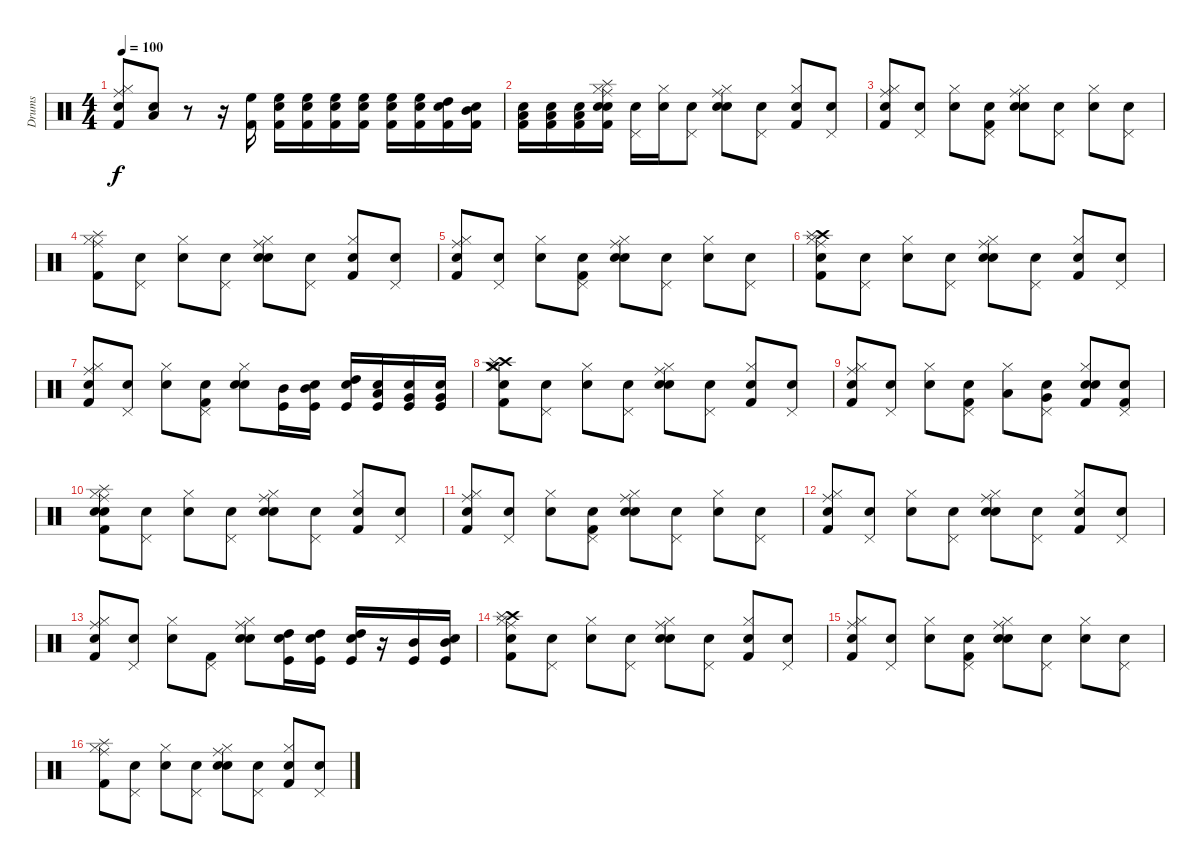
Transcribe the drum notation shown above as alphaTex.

\track ("Drums" "Drums") {instrument percussion}
\staff {score}
\articulation defaults
\ts (4 4)
\tempo 100
\clef neutral
\ks c
("Snare (hit)" "Ride (middle)" "Hi-Hat (closed)" "Kick (hit) 2").8{dy f} ("Snare (hit)" "Low Tom (hit)").8 r.8 r.16 ("Kick (hit) 2" "High Floor Tom (hit)").16 ("Snare (hit)" "Kick (hit) 2" "High Floor Tom (hit)").16 ("Snare (hit)" "Kick (hit) 2" "High Floor Tom (hit)").16 ("Snare (hit)" "Kick (hit) 2" "High Floor Tom (hit)").16 ("Snare (hit)" "Kick (hit) 2" "High Floor Tom (hit)").16 ("Snare (hit)" "Kick (hit) 2" "High Floor Tom (hit)").16 ("Snare (hit)" "Kick (hit) 2" "High Floor Tom (hit)").16 ("Snare (hit)" "Kick (hit) 2" "High Tom (hit)").16 ("Snare (hit)" "Kick (hit) 2" "Mid Tom (hit)").16 |
("Snare (hit)" "Kick (hit) 2" "Low Tom (hit)").16 ("Snare (hit)" "Kick (hit) 2" "Low Tom (hit)").16 ("Snare (hit)" "Low Floor Tom (hit)" "Kick (hit) 2").16 ("Snare (hit)" "Ride (middle)" "Hi-Hat (closed)" "Kick (hit) 2" "Snare (hit) 2" "Splash (hit)").16 ("Snare (hit)" "Pedal Hi-Hat (hit)").16 ("Snare (hit)" "Hi-Hat (closed)").16 ("Snare (hit)" "Pedal Hi-Hat (hit)").8 ("Snare (hit)" "Ride (middle)" "Hi-Hat (closed)" "Snare (hit) 2").8 ("Snare (hit)" "Pedal Hi-Hat (hit)").8 ("Snare (hit)" "Hi-Hat (closed)" "Kick (hit) 2").8 ("Snare (hit)" "Pedal Hi-Hat (hit)").8 |
("Snare (hit)" "Ride (middle)" "Hi-Hat (closed)" "Kick (hit) 2").8 ("Snare (hit)" "Pedal Hi-Hat (hit)").8 ("Snare (hit)" "Hi-Hat (closed)").8 ("Snare (hit)" "Pedal Hi-Hat (hit)" "Kick (hit) 2").8 ("Snare (hit)" "Ride (middle)" "Hi-Hat (closed)" "Snare (hit) 2").8 ("Snare (hit)" "Pedal Hi-Hat (hit)").8 ("Snare (hit)" "Hi-Hat (closed)").8 ("Snare (hit)" "Pedal Hi-Hat (hit)").8 |
("Splash (hit)" "Kick (hit) 2" "Ride (middle)" "Hi-Hat (closed)").8 ("Snare (hit)" "Pedal Hi-Hat (hit)").8 ("Snare (hit)" "Hi-Hat (closed)").8 ("Snare (hit)" "Pedal Hi-Hat (hit)").8 ("Snare (hit)" "Ride (middle)" "Hi-Hat (closed)" "Snare (hit) 2").8 ("Snare (hit)" "Pedal Hi-Hat (hit)").8 ("Snare (hit)" "Hi-Hat (closed)" "Kick (hit) 2").8 ("Snare (hit)" "Pedal Hi-Hat (hit)").8 |
("Snare (hit)" "Ride (middle)" "Hi-Hat (closed)" "Kick (hit) 2").8 ("Snare (hit)" "Pedal Hi-Hat (hit)").8 ("Snare (hit)" "Hi-Hat (closed)").8 ("Snare (hit)" "Pedal Hi-Hat (hit)" "Kick (hit) 2").8 ("Snare (hit)" "Ride (middle)" "Hi-Hat (closed)" "Snare (hit) 2").8 ("Snare (hit)" "Pedal Hi-Hat (hit)").8 ("Snare (hit)" "Hi-Hat (closed)").8 ("Snare (hit)" "Pedal Hi-Hat (hit)").8 |
("Snare (hit)" "Hi-Hat (closed)" "Ride (middle)" "Kick (hit) 2" "Crash high (hit)" "Splash (hit)").8 ("Snare (hit)" "Pedal Hi-Hat (hit)").8 ("Snare (hit)" "Hi-Hat (closed)").8 ("Snare (hit)" "Pedal Hi-Hat (hit)").8 ("Snare (hit)" "Ride (middle)" "Hi-Hat (closed)" "Snare (hit) 2").8 ("Snare (hit)" "Pedal Hi-Hat (hit)").8 ("Snare (hit)" "Hi-Hat (closed)" "Kick (hit) 2").8 ("Snare (hit)" "Pedal Hi-Hat (hit)").8 |
("Snare (hit)" "Ride (middle)" "Hi-Hat (closed)" "Kick (hit) 2").8 ("Snare (hit)" "Pedal Hi-Hat (hit)").8 ("Snare (hit)" "Hi-Hat (closed)").8 ("Snare (hit)" "Pedal Hi-Hat (hit)" "Kick (hit) 2").8 ("Snare (hit)" "Hi-Hat (closed)" "Snare (hit) 2").8 ("Kick (hit)" "Mid Tom (hit)").16 ("Snare (hit)" "Kick (hit)" "Mid Tom (hit)").16 ("Snare (hit)" "Kick (hit)" "High Tom (hit)").16 ("Snare (hit)" "Kick (hit)" "Low Tom (hit)").16 ("Snare (hit)" "Very Low Tom (hit)" "Kick (hit)").16 ("Snare (hit)" "Very Low Tom (hit)" "Kick (hit)").16 |
("Snare (hit)" "Crash medium (hit)" "Crash high (hit)" "Splash (hit)" "Kick (hit) 2" "Hi-Hat (closed)").8 ("Snare (hit)" "Pedal Hi-Hat (hit)").8 ("Snare (hit)" "Hi-Hat (closed)").8 ("Snare (hit)" "Pedal Hi-Hat (hit)").8 ("Snare (hit)" "Ride (middle)" "Hi-Hat (closed)" "Snare (hit) 2").8 ("Snare (hit)" "Pedal Hi-Hat (hit)").8 ("Snare (hit)" "Hi-Hat (closed)" "Kick (hit) 2").8 ("Snare (hit)" "Pedal Hi-Hat (hit)").8 |
("Snare (hit)" "Ride (middle)" "Hi-Hat (closed)" "Kick (hit) 2").8 ("Snare (hit)" "Pedal Hi-Hat (hit)").8 ("Snare (hit)" "Hi-Hat (closed)").8 ("Snare (hit)" "Pedal Hi-Hat (hit)" "Kick (hit) 2").8 ("Hi-Hat (closed)" "Low Tom (hit)").8 ("Snare (hit)" "Pedal Hi-Hat (hit)" "Very Low Tom (hit)").8 ("Snare (hit)" "Hi-Hat (closed)" "Snare (hit) 2" "Kick (hit) 2").8 ("Pedal Hi-Hat (hit)" "Snare (hit) 2" "Kick (hit) 2").8 |
("Snare (hit)" "Ride (middle)" "Hi-Hat (closed)" "Kick (hit) 2" "Snare (hit) 2" "Splash (hit)").8 ("Snare (hit)" "Pedal Hi-Hat (hit)").8 ("Snare (hit)" "Hi-Hat (closed)").8 ("Snare (hit)" "Pedal Hi-Hat (hit)").8 ("Snare (hit)" "Ride (middle)" "Hi-Hat (closed)" "Snare (hit) 2").8 ("Snare (hit)" "Pedal Hi-Hat (hit)").8 ("Snare (hit)" "Hi-Hat (closed)" "Kick (hit) 2").8 ("Snare (hit)" "Pedal Hi-Hat (hit)").8 |
("Snare (hit)" "Ride (middle)" "Hi-Hat (closed)" "Kick (hit) 2").8 ("Snare (hit)" "Pedal Hi-Hat (hit)").8 ("Snare (hit)" "Hi-Hat (closed)").8 ("Snare (hit)" "Pedal Hi-Hat (hit)" "Kick (hit) 2").8 ("Snare (hit)" "Ride (middle)" "Hi-Hat (closed)" "Snare (hit) 2").8 ("Snare (hit)" "Pedal Hi-Hat (hit)").8 ("Snare (hit)" "Hi-Hat (closed)").8 ("Snare (hit)" "Pedal Hi-Hat (hit)").8 |
("Snare (hit)" "Kick (hit) 2" "Ride (middle)" "Hi-Hat (closed)").8 ("Snare (hit)" "Pedal Hi-Hat (hit)").8 ("Snare (hit)" "Hi-Hat (closed)").8 ("Snare (hit)" "Pedal Hi-Hat (hit)").8 ("Snare (hit)" "Ride (middle)" "Hi-Hat (closed)" "Snare (hit) 2").8 ("Snare (hit)" "Pedal Hi-Hat (hit)").8 ("Snare (hit)" "Hi-Hat (closed)" "Kick (hit) 2").8 ("Snare (hit)" "Pedal Hi-Hat (hit)").8 |
("Snare (hit)" "Ride (middle)" "Hi-Hat (closed)" "Kick (hit) 2").8 ("Snare (hit)" "Pedal Hi-Hat (hit)").8 ("Snare (hit)" "Hi-Hat (closed)").8 ("Kick (hit) 2" "Pedal Hi-Hat (hit)").8 ("Snare (hit)" "Snare (hit) 2" "Ride (middle)" "Hi-Hat (closed)").8 ("Snare (hit)" "Kick (hit)" "High Tom (hit)").16 ("Snare (hit)" "Kick (hit)" "High Tom (hit)").16 ("Snare (hit)" "Kick (hit)" "High Tom (hit)").16 r.16 ("Kick (hit)" "Mid Tom (hit)").16 ("Snare (hit)" "Kick (hit)" "Mid Tom (hit)").16 |
("Snare (hit)" "Hi-Hat (closed)" "Ride (middle)" "Kick (hit) 2" "Crash high (hit)" "Splash (hit)").8 ("Snare (hit)" "Pedal Hi-Hat (hit)").8 ("Snare (hit)" "Hi-Hat (closed)").8 ("Snare (hit)" "Pedal Hi-Hat (hit)").8 ("Snare (hit)" "Ride (middle)" "Hi-Hat (closed)" "Snare (hit) 2").8 ("Snare (hit)" "Pedal Hi-Hat (hit)").8 ("Snare (hit)" "Hi-Hat (closed)" "Kick (hit) 2").8 ("Snare (hit)" "Pedal Hi-Hat (hit)").8 |
("Snare (hit)" "Ride (middle)" "Hi-Hat (closed)" "Kick (hit) 2").8 ("Snare (hit)" "Pedal Hi-Hat (hit)").8 ("Snare (hit)" "Hi-Hat (closed)").8 ("Snare (hit)" "Pedal Hi-Hat (hit)" "Kick (hit) 2").8 ("Snare (hit)" "Ride (middle)" "Hi-Hat (closed)" "Snare (hit) 2").8 ("Snare (hit)" "Pedal Hi-Hat (hit)").8 ("Snare (hit)" "Hi-Hat (closed)").8 ("Snare (hit)" "Pedal Hi-Hat (hit)").8 |
("Splash (hit)" "Kick (hit) 2" "Ride (middle)" "Hi-Hat (closed)").8 ("Snare (hit)" "Pedal Hi-Hat (hit)").8 ("Snare (hit)" "Hi-Hat (closed)").8 ("Snare (hit)" "Pedal Hi-Hat (hit)").8 ("Snare (hit)" "Ride (middle)" "Hi-Hat (closed)" "Snare (hit) 2").8 ("Snare (hit)" "Pedal Hi-Hat (hit)").8 ("Snare (hit)" "Hi-Hat (closed)" "Kick (hit) 2").8 ("Snare (hit)" "Pedal Hi-Hat (hit)").8
